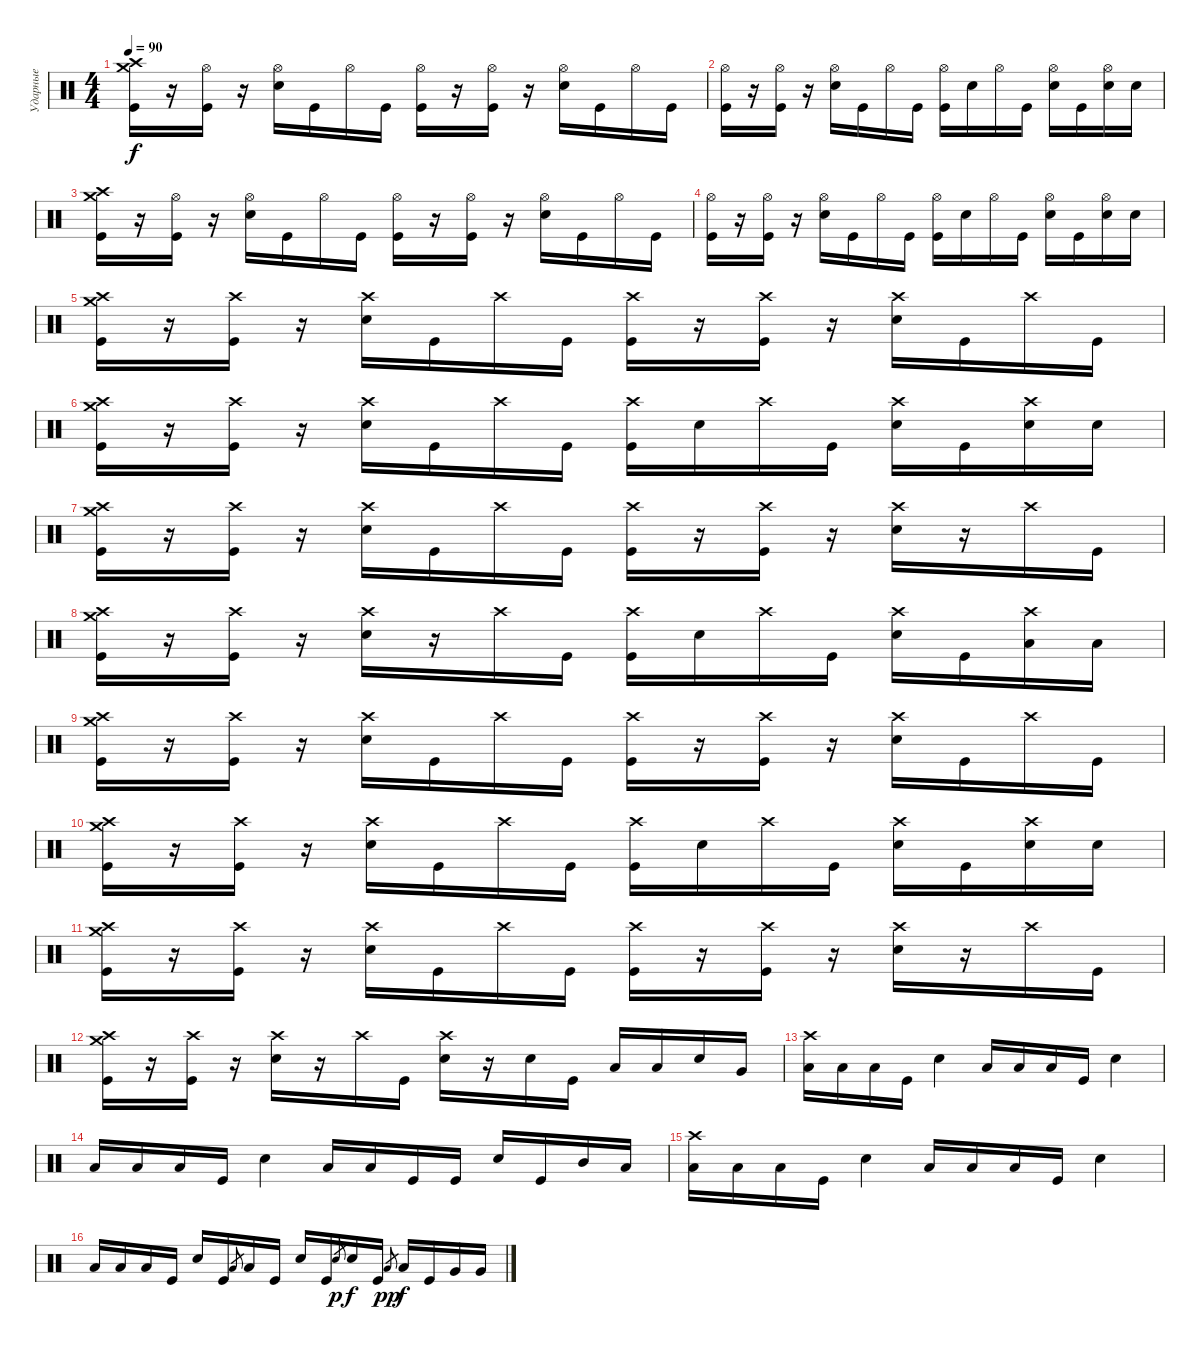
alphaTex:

\track ("Ударные" "Ударные") {instrument percussion}
\staff {score}
\articulation defaults
\ts (4 4)
\tempo 90
\clef neutral
\ks c
("Crash high (hit)" "Kick (hit)" "Crash medium (hit)").16{dy f} r.16 ("Kick (hit)" "Hi-Hat (open)").16 r.16 ("Hi-Hat (open)" "Snare (hit) 2").16 "Kick (hit)".16 "Hi-Hat (open)".16 "Kick (hit)".16 ("Hi-Hat (open)" "Kick (hit)").16 r.16 ("Hi-Hat (open)" "Kick (hit)").16 r.16 ("Hi-Hat (open)" "Snare (hit) 2").16 "Kick (hit)".16 "Hi-Hat (open)".16 "Kick (hit)".16 |
("Hi-Hat (open)" "Kick (hit)").16 r.16 ("Kick (hit)" "Hi-Hat (open)").16 r.16 ("Hi-Hat (open)" "Snare (hit) 2").16 "Kick (hit)".16 "Hi-Hat (open)".16 "Kick (hit)".16 ("Hi-Hat (open)" "Kick (hit)").16 "Snare (hit) 2".16 "Hi-Hat (open)".16 "Kick (hit)".16 ("Snare (hit) 2" "Hi-Hat (open)").16 "Kick (hit)".16 ("Hi-Hat (open)" "Snare (hit) 2").16 "Snare (hit) 2".16 |
("Crash high (hit)" "Kick (hit)" "Crash medium (hit)").16 r.16 ("Kick (hit)" "Hi-Hat (open)").16 r.16 ("Hi-Hat (open)" "Snare (hit) 2").16 "Kick (hit)".16 "Hi-Hat (open)".16 "Kick (hit)".16 ("Hi-Hat (open)" "Kick (hit)").16 r.16 ("Hi-Hat (open)" "Kick (hit)").16 r.16 ("Hi-Hat (open)" "Snare (hit) 2").16 "Kick (hit)".16 "Hi-Hat (open)".16 "Kick (hit)".16 |
("Hi-Hat (open)" "Kick (hit)").16 r.16 ("Kick (hit)" "Hi-Hat (open)").16 r.16 ("Hi-Hat (open)" "Snare (hit) 2").16 "Kick (hit)".16 "Hi-Hat (open)".16 "Kick (hit)".16 ("Hi-Hat (open)" "Kick (hit)").16 "Snare (hit) 2".16 "Hi-Hat (open)".16 "Kick (hit)".16 ("Snare (hit) 2" "Hi-Hat (open)").16 "Kick (hit)".16 ("Hi-Hat (open)" "Snare (hit) 2").16 "Snare (hit) 2".16 |
("Crash high (hit)" "Kick (hit)" "Crash medium (hit)").16 r.16 ("Kick (hit)" "Crash high (hit)").16 r.16 ("Crash high (hit)" "Snare (hit) 2").16 "Kick (hit)".16 "Crash high (hit)".16 "Kick (hit)".16 ("Crash high (hit)" "Kick (hit)").16 r.16 ("Crash high (hit)" "Kick (hit)").16 r.16 ("Crash high (hit)" "Snare (hit) 2").16 "Kick (hit)".16 "Crash high (hit)".16 "Kick (hit)".16 |
("Crash high (hit)" "Kick (hit)" "Crash medium (hit)").16 r.16 ("Kick (hit)" "Crash high (hit)").16 r.16 ("Crash high (hit)" "Snare (hit) 2").16 "Kick (hit)".16 "Crash high (hit)".16 "Kick (hit)".16 ("Crash high (hit)" "Kick (hit)").16 "Snare (hit) 2".16 "Crash high (hit)".16 "Kick (hit)".16 ("Crash high (hit)" "Snare (hit) 2").16 "Kick (hit)".16 ("Crash high (hit)" "Snare (hit) 2").16 "Snare (hit) 2".16 |
("Crash high (hit)" "Kick (hit)" "Crash medium (hit)").16 r.16 ("Kick (hit)" "Crash high (hit)").16 r.16 ("Crash high (hit)" "Snare (hit) 2").16 "Kick (hit)".16 "Crash high (hit)".16 "Kick (hit)".16 ("Crash high (hit)" "Kick (hit)").16 r.16 ("Crash high (hit)" "Kick (hit)").16 r.16 ("Crash high (hit)" "Snare (hit) 2").16 r.16 "Crash high (hit)".16 "Kick (hit)".16 |
("Crash high (hit)" "Kick (hit)" "Crash medium (hit)").16 r.16 ("Kick (hit)" "Crash high (hit)").16 r.16 ("Crash high (hit)" "Snare (hit) 2").16 r.16 "Crash high (hit)".16 "Kick (hit)".16 ("Crash high (hit)" "Kick (hit)").16 "Snare (hit) 2".16 "Crash high (hit)".16 "Kick (hit)".16 ("Crash high (hit)" "Snare (hit) 2").16 "Kick (hit)".16 ("Low Floor Tom (hit)" "Crash high (hit)").16 "Low Floor Tom (hit)".16 |
("Crash high (hit)" "Kick (hit)" "Crash medium (hit)").16 r.16 ("Kick (hit)" "Crash high (hit)").16 r.16 ("Crash high (hit)" "Snare (hit) 2").16 "Kick (hit)".16 "Crash high (hit)".16 "Kick (hit)".16 ("Crash high (hit)" "Kick (hit)").16 r.16 ("Crash high (hit)" "Kick (hit)").16 r.16 ("Crash high (hit)" "Snare (hit) 2").16 "Kick (hit)".16 "Crash high (hit)".16 "Kick (hit)".16 |
("Crash high (hit)" "Kick (hit)" "Crash medium (hit)").16 r.16 ("Kick (hit)" "Crash high (hit)").16 r.16 ("Crash high (hit)" "Snare (hit) 2").16 "Kick (hit)".16 "Crash high (hit)".16 "Kick (hit)".16 ("Crash high (hit)" "Kick (hit)").16 "Snare (hit) 2".16 "Crash high (hit)".16 "Kick (hit)".16 ("Crash high (hit)" "Snare (hit) 2").16 "Kick (hit)".16 ("Crash high (hit)" "Snare (hit) 2").16 "Snare (hit) 2".16 |
("Crash high (hit)" "Kick (hit)" "Crash medium (hit)").16 r.16 ("Kick (hit)" "Crash high (hit)").16 r.16 ("Crash high (hit)" "Snare (hit) 2").16 "Kick (hit)".16 "Crash high (hit)".16 "Kick (hit)".16 ("Crash high (hit)" "Kick (hit)").16 r.16 ("Crash high (hit)" "Kick (hit)").16 r.16 ("Crash high (hit)" "Snare (hit) 2").16 r.16 "Crash high (hit)".16 "Kick (hit)".16 |
("Crash high (hit)" "Kick (hit)" "Crash medium (hit)").16 r.16 ("Kick (hit)" "Crash high (hit)").16 r.16 ("Crash high (hit)" "Snare (hit) 2").16 r.16 "Crash high (hit)".16 "Kick (hit)".16 ("Crash high (hit)" "Snare (hit) 2").16 r.16 "Snare (hit) 2".16 "Kick (hit)".16 "Low Tom (hit)".16 "Low Tom (hit)".16 "Snare (hit) 2".16 "Very Low Tom (hit)".16 |
("Low Tom (hit)" "Crash high (hit)").16 "Low Floor Tom (hit)".16 "Low Floor Tom (hit)".16 "Kick (hit)".16 "Snare (hit) 2".4 "Low Tom (hit)".16 "Low Floor Tom (hit)".16 "Low Floor Tom (hit)".16 "Kick (hit)".16 "Snare (hit) 2".4 |
"Low Tom (hit)".16 "Low Floor Tom (hit)".16 "Low Floor Tom (hit)".16 "Kick (hit)".16 "Snare (hit) 2".4 "Low Tom (hit)".16 "Low Floor Tom (hit)".16 "Kick (hit)".16 "Kick (hit)".16 "Snare (hit) 2".16 "Kick (hit)".16 "Mid Tom (hit)".16 "Low Tom (hit)".16 |
("Low Tom (hit)" "Crash high (hit)").16 "Low Floor Tom (hit)".16 "Low Floor Tom (hit)".16 "Kick (hit)".16 "Snare (hit) 2".4 "Low Tom (hit)".16 "Low Floor Tom (hit)".16 "Low Floor Tom (hit)".16 "Kick (hit)".16 "Snare (hit) 2".4 |
"Low Tom (hit)".16 "Low Floor Tom (hit)".16 "Low Floor Tom (hit)".16 "Kick (hit)".16 "Snare (hit) 2".16 "Kick (hit)".16 "Low Tom (hit)".8{gr} "Low Tom (hit)".16 "Kick (hit)".16 "Snare (hit) 2".16 "Kick (hit)".16 "Snare (hit) 2".8{gr dy p} "Snare (hit) 2".16{dy f} "Kick (hit)".16 "Low Tom (hit)".8{gr dy pp} "Low Tom (hit)".16{dy f} "Kick (hit)".16 "Very Low Tom (hit)".16 "Very Low Tom (hit)".16
